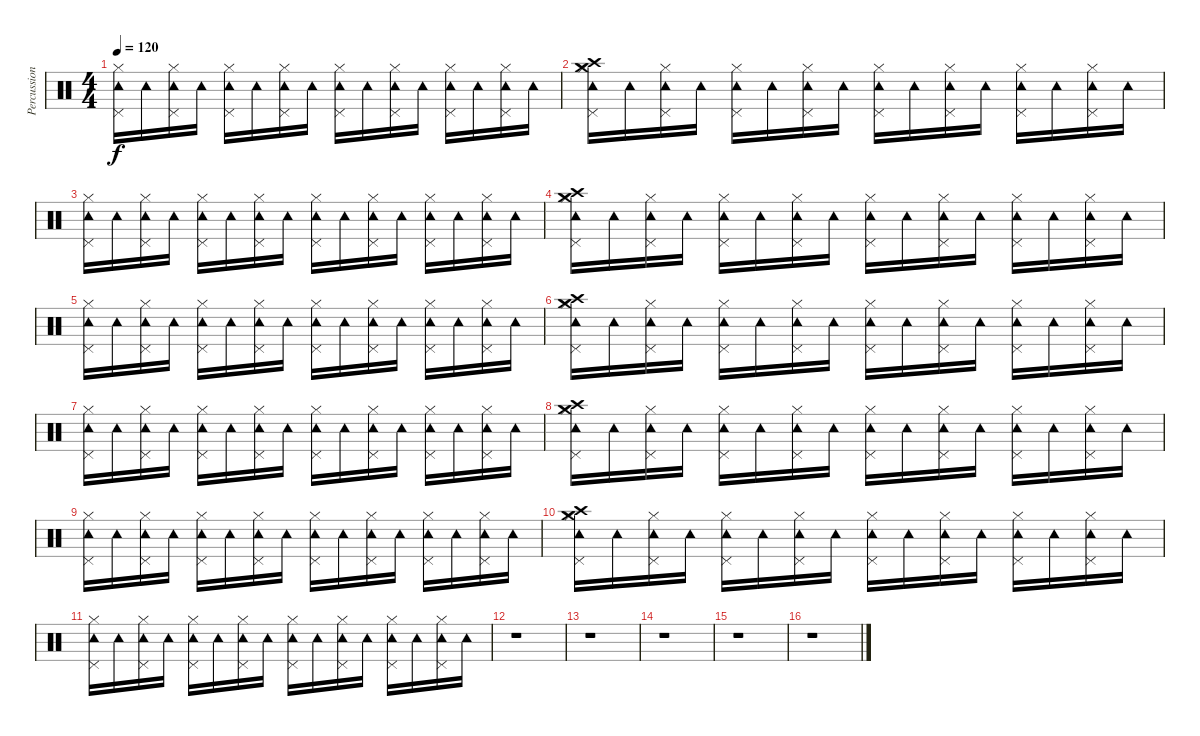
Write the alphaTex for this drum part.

\track ("Percussion" "Percussion") {instrument percussion}
\staff {score}
\articulation defaults
\ts (4 4)
\tempo 120
\clef neutral
\ks c
("Hi-Hat (closed)" "Pedal Hi-Hat (hit)" "Tambourine (hit)").16{dy f} "Tambourine (hit)".16 ("Hi-Hat (closed)" "Pedal Hi-Hat (hit)" "Tambourine (hit)").16 "Tambourine (hit)".16 ("Hi-Hat (closed)" "Pedal Hi-Hat (hit)" "Tambourine (hit)").16 "Tambourine (hit)".16 ("Hi-Hat (closed)" "Pedal Hi-Hat (hit)" "Tambourine (hit)").16 "Tambourine (hit)".16 ("Hi-Hat (closed)" "Pedal Hi-Hat (hit)" "Tambourine (hit)").16 "Tambourine (hit)".16 ("Hi-Hat (closed)" "Pedal Hi-Hat (hit)" "Tambourine (hit)").16 "Tambourine (hit)".16 ("Hi-Hat (closed)" "Pedal Hi-Hat (hit)" "Tambourine (hit)").16 "Tambourine (hit)".16 ("Hi-Hat (closed)" "Pedal Hi-Hat (hit)" "Tambourine (hit)").16 "Tambourine (hit)".16 |
("Hi-Hat (closed)" "Pedal Hi-Hat (hit)" "Tambourine (hit)" "Crash medium (hit)" "Crash high (hit)").16 "Tambourine (hit)".16 ("Hi-Hat (closed)" "Pedal Hi-Hat (hit)" "Tambourine (hit)").16 "Tambourine (hit)".16 ("Hi-Hat (closed)" "Pedal Hi-Hat (hit)" "Tambourine (hit)").16 "Tambourine (hit)".16 ("Hi-Hat (closed)" "Pedal Hi-Hat (hit)" "Tambourine (hit)").16 "Tambourine (hit)".16 ("Hi-Hat (closed)" "Pedal Hi-Hat (hit)" "Tambourine (hit)").16 "Tambourine (hit)".16 ("Hi-Hat (closed)" "Pedal Hi-Hat (hit)" "Tambourine (hit)").16 "Tambourine (hit)".16 ("Hi-Hat (closed)" "Pedal Hi-Hat (hit)" "Tambourine (hit)").16 "Tambourine (hit)".16 ("Hi-Hat (closed)" "Pedal Hi-Hat (hit)" "Tambourine (hit)").16 "Tambourine (hit)".16 |
("Hi-Hat (closed)" "Pedal Hi-Hat (hit)" "Tambourine (hit)").16 "Tambourine (hit)".16 ("Hi-Hat (closed)" "Pedal Hi-Hat (hit)" "Tambourine (hit)").16 "Tambourine (hit)".16 ("Hi-Hat (closed)" "Pedal Hi-Hat (hit)" "Tambourine (hit)").16 "Tambourine (hit)".16 ("Hi-Hat (closed)" "Pedal Hi-Hat (hit)" "Tambourine (hit)").16 "Tambourine (hit)".16 ("Hi-Hat (closed)" "Pedal Hi-Hat (hit)" "Tambourine (hit)").16 "Tambourine (hit)".16 ("Hi-Hat (closed)" "Pedal Hi-Hat (hit)" "Tambourine (hit)").16 "Tambourine (hit)".16 ("Hi-Hat (closed)" "Pedal Hi-Hat (hit)" "Tambourine (hit)").16 "Tambourine (hit)".16 ("Hi-Hat (closed)" "Pedal Hi-Hat (hit)" "Tambourine (hit)").16 "Tambourine (hit)".16 |
("Hi-Hat (closed)" "Pedal Hi-Hat (hit)" "Tambourine (hit)" "Crash medium (hit)" "Crash high (hit)").16 "Tambourine (hit)".16 ("Hi-Hat (closed)" "Pedal Hi-Hat (hit)" "Tambourine (hit)").16 "Tambourine (hit)".16 ("Hi-Hat (closed)" "Pedal Hi-Hat (hit)" "Tambourine (hit)").16 "Tambourine (hit)".16 ("Hi-Hat (closed)" "Pedal Hi-Hat (hit)" "Tambourine (hit)").16 "Tambourine (hit)".16 ("Hi-Hat (closed)" "Pedal Hi-Hat (hit)" "Tambourine (hit)").16 "Tambourine (hit)".16 ("Hi-Hat (closed)" "Pedal Hi-Hat (hit)" "Tambourine (hit)").16 "Tambourine (hit)".16 ("Hi-Hat (closed)" "Pedal Hi-Hat (hit)" "Tambourine (hit)").16 "Tambourine (hit)".16 ("Hi-Hat (closed)" "Pedal Hi-Hat (hit)" "Tambourine (hit)").16 "Tambourine (hit)".16 |
("Hi-Hat (closed)" "Pedal Hi-Hat (hit)" "Tambourine (hit)").16 "Tambourine (hit)".16 ("Hi-Hat (closed)" "Pedal Hi-Hat (hit)" "Tambourine (hit)").16 "Tambourine (hit)".16 ("Hi-Hat (closed)" "Pedal Hi-Hat (hit)" "Tambourine (hit)").16 "Tambourine (hit)".16 ("Hi-Hat (closed)" "Pedal Hi-Hat (hit)" "Tambourine (hit)").16 "Tambourine (hit)".16 ("Hi-Hat (closed)" "Pedal Hi-Hat (hit)" "Tambourine (hit)").16 "Tambourine (hit)".16 ("Hi-Hat (closed)" "Pedal Hi-Hat (hit)" "Tambourine (hit)").16 "Tambourine (hit)".16 ("Hi-Hat (closed)" "Pedal Hi-Hat (hit)" "Tambourine (hit)").16 "Tambourine (hit)".16 ("Hi-Hat (closed)" "Pedal Hi-Hat (hit)" "Tambourine (hit)").16 "Tambourine (hit)".16 |
("Hi-Hat (closed)" "Pedal Hi-Hat (hit)" "Tambourine (hit)" "Crash medium (hit)" "Crash high (hit)").16 "Tambourine (hit)".16 ("Hi-Hat (closed)" "Pedal Hi-Hat (hit)" "Tambourine (hit)").16 "Tambourine (hit)".16 ("Hi-Hat (closed)" "Pedal Hi-Hat (hit)" "Tambourine (hit)").16 "Tambourine (hit)".16 ("Hi-Hat (closed)" "Pedal Hi-Hat (hit)" "Tambourine (hit)").16 "Tambourine (hit)".16 ("Hi-Hat (closed)" "Pedal Hi-Hat (hit)" "Tambourine (hit)").16 "Tambourine (hit)".16 ("Hi-Hat (closed)" "Pedal Hi-Hat (hit)" "Tambourine (hit)").16 "Tambourine (hit)".16 ("Hi-Hat (closed)" "Pedal Hi-Hat (hit)" "Tambourine (hit)").16 "Tambourine (hit)".16 ("Hi-Hat (closed)" "Pedal Hi-Hat (hit)" "Tambourine (hit)").16 "Tambourine (hit)".16 |
("Hi-Hat (closed)" "Pedal Hi-Hat (hit)" "Tambourine (hit)").16 "Tambourine (hit)".16 ("Hi-Hat (closed)" "Pedal Hi-Hat (hit)" "Tambourine (hit)").16 "Tambourine (hit)".16 ("Hi-Hat (closed)" "Pedal Hi-Hat (hit)" "Tambourine (hit)").16 "Tambourine (hit)".16 ("Hi-Hat (closed)" "Pedal Hi-Hat (hit)" "Tambourine (hit)").16 "Tambourine (hit)".16 ("Hi-Hat (closed)" "Pedal Hi-Hat (hit)" "Tambourine (hit)").16 "Tambourine (hit)".16 ("Hi-Hat (closed)" "Pedal Hi-Hat (hit)" "Tambourine (hit)").16 "Tambourine (hit)".16 ("Hi-Hat (closed)" "Pedal Hi-Hat (hit)" "Tambourine (hit)").16 "Tambourine (hit)".16 ("Hi-Hat (closed)" "Pedal Hi-Hat (hit)" "Tambourine (hit)").16 "Tambourine (hit)".16 |
("Hi-Hat (closed)" "Pedal Hi-Hat (hit)" "Tambourine (hit)" "Crash medium (hit)" "Crash high (hit)").16 "Tambourine (hit)".16 ("Hi-Hat (closed)" "Pedal Hi-Hat (hit)" "Tambourine (hit)").16 "Tambourine (hit)".16 ("Hi-Hat (closed)" "Pedal Hi-Hat (hit)" "Tambourine (hit)").16 "Tambourine (hit)".16 ("Hi-Hat (closed)" "Pedal Hi-Hat (hit)" "Tambourine (hit)").16 "Tambourine (hit)".16 ("Hi-Hat (closed)" "Pedal Hi-Hat (hit)" "Tambourine (hit)").16 "Tambourine (hit)".16 ("Hi-Hat (closed)" "Pedal Hi-Hat (hit)" "Tambourine (hit)").16 "Tambourine (hit)".16 ("Hi-Hat (closed)" "Pedal Hi-Hat (hit)" "Tambourine (hit)").16 "Tambourine (hit)".16 ("Hi-Hat (closed)" "Pedal Hi-Hat (hit)" "Tambourine (hit)").16 "Tambourine (hit)".16 |
("Hi-Hat (closed)" "Pedal Hi-Hat (hit)" "Tambourine (hit)").16 "Tambourine (hit)".16 ("Hi-Hat (closed)" "Pedal Hi-Hat (hit)" "Tambourine (hit)").16 "Tambourine (hit)".16 ("Hi-Hat (closed)" "Pedal Hi-Hat (hit)" "Tambourine (hit)").16 "Tambourine (hit)".16 ("Hi-Hat (closed)" "Pedal Hi-Hat (hit)" "Tambourine (hit)").16 "Tambourine (hit)".16 ("Hi-Hat (closed)" "Pedal Hi-Hat (hit)" "Tambourine (hit)").16 "Tambourine (hit)".16 ("Hi-Hat (closed)" "Pedal Hi-Hat (hit)" "Tambourine (hit)").16 "Tambourine (hit)".16 ("Hi-Hat (closed)" "Pedal Hi-Hat (hit)" "Tambourine (hit)").16 "Tambourine (hit)".16 ("Hi-Hat (closed)" "Pedal Hi-Hat (hit)" "Tambourine (hit)").16 "Tambourine (hit)".16 |
("Hi-Hat (closed)" "Pedal Hi-Hat (hit)" "Tambourine (hit)" "Crash medium (hit)" "Crash high (hit)").16 "Tambourine (hit)".16 ("Hi-Hat (closed)" "Pedal Hi-Hat (hit)" "Tambourine (hit)").16 "Tambourine (hit)".16 ("Hi-Hat (closed)" "Pedal Hi-Hat (hit)" "Tambourine (hit)").16 "Tambourine (hit)".16 ("Hi-Hat (closed)" "Pedal Hi-Hat (hit)" "Tambourine (hit)").16 "Tambourine (hit)".16 ("Hi-Hat (closed)" "Pedal Hi-Hat (hit)" "Tambourine (hit)").16 "Tambourine (hit)".16 ("Hi-Hat (closed)" "Pedal Hi-Hat (hit)" "Tambourine (hit)").16 "Tambourine (hit)".16 ("Hi-Hat (closed)" "Pedal Hi-Hat (hit)" "Tambourine (hit)").16 "Tambourine (hit)".16 ("Hi-Hat (closed)" "Pedal Hi-Hat (hit)" "Tambourine (hit)").16 "Tambourine (hit)".16 |
("Hi-Hat (closed)" "Pedal Hi-Hat (hit)" "Tambourine (hit)").16 "Tambourine (hit)".16 ("Hi-Hat (closed)" "Pedal Hi-Hat (hit)" "Tambourine (hit)").16 "Tambourine (hit)".16 ("Hi-Hat (closed)" "Pedal Hi-Hat (hit)" "Tambourine (hit)").16 "Tambourine (hit)".16 ("Hi-Hat (closed)" "Pedal Hi-Hat (hit)" "Tambourine (hit)").16 "Tambourine (hit)".16 ("Hi-Hat (closed)" "Pedal Hi-Hat (hit)" "Tambourine (hit)").16 "Tambourine (hit)".16 ("Hi-Hat (closed)" "Pedal Hi-Hat (hit)" "Tambourine (hit)").16 "Tambourine (hit)".16 ("Hi-Hat (closed)" "Pedal Hi-Hat (hit)" "Tambourine (hit)").16 "Tambourine (hit)".16 ("Hi-Hat (closed)" "Pedal Hi-Hat (hit)" "Tambourine (hit)").16 "Tambourine (hit)".16 |
r.1 |
r.1 |
r.1 |
r.1 |
r.1
